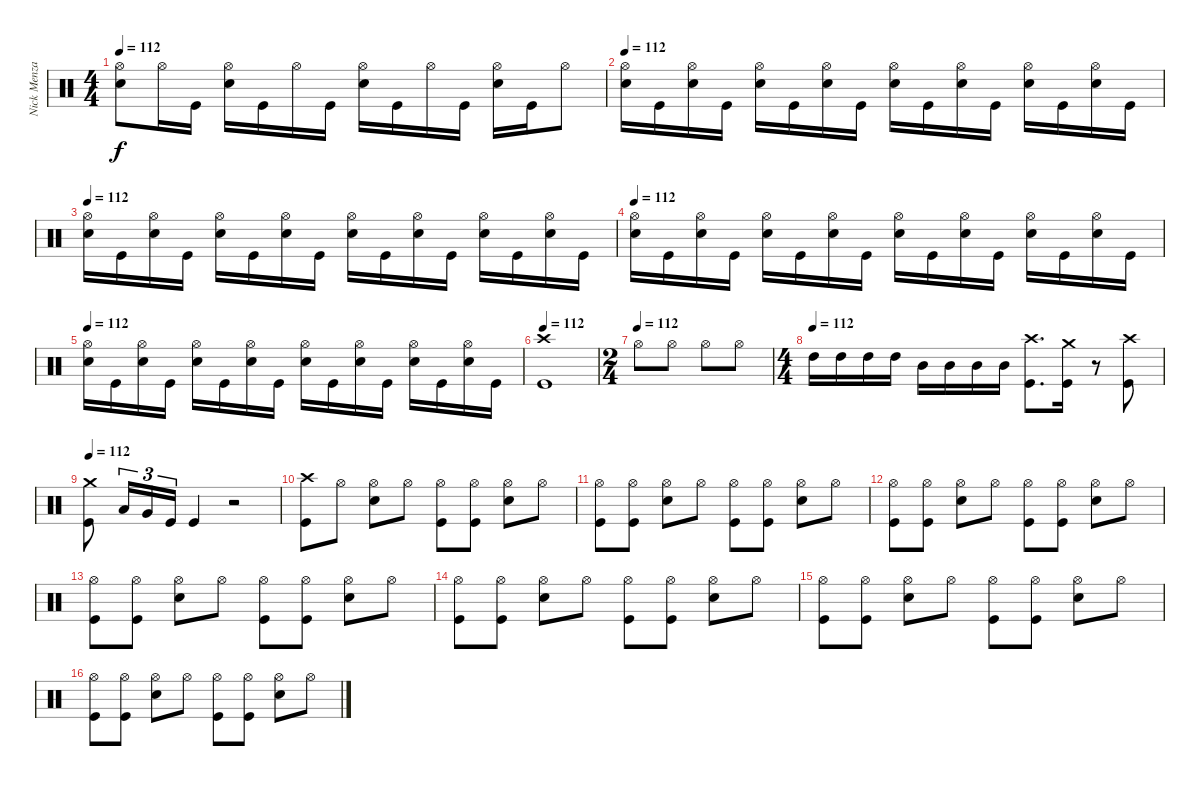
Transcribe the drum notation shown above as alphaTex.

\track ("Nick Menza" "Nick Menza") {instrument percussion}
\staff {score}
\articulation defaults
\ts (4 4)
\tempo 112
\clef neutral
\ks c
("Hi-Hat (open)" "Snare (hit) 2").8{dy f} "Hi-Hat (open)".16 "Kick (hit)".16 ("Hi-Hat (open)" "Snare (hit) 2").16 "Kick (hit)".16 "Hi-Hat (open)".16 "Kick (hit)".16 ("Hi-Hat (open)" "Snare (hit) 2").16 "Kick (hit)".16 "Hi-Hat (open)".16 "Kick (hit)".16 ("Hi-Hat (open)" "Snare (hit) 2").16 "Kick (hit)".16 "Hi-Hat (open)".8 |
\tempo 112
("Hi-Hat (open)" "Snare (hit) 2").16 "Kick (hit)".16 ("Hi-Hat (open)" "Snare (hit) 2").16 "Kick (hit)".16 ("Hi-Hat (open)" "Snare (hit) 2").16 "Kick (hit)".16 ("Hi-Hat (open)" "Snare (hit) 2").16 "Kick (hit)".16 ("Hi-Hat (open)" "Snare (hit) 2").16 "Kick (hit)".16 ("Hi-Hat (open)" "Snare (hit) 2").16 "Kick (hit)".16 ("Hi-Hat (open)" "Snare (hit) 2").16 "Kick (hit)".16 ("Hi-Hat (open)" "Snare (hit) 2").16 "Kick (hit)".16 |
\tempo 112
("Hi-Hat (open)" "Snare (hit) 2").16 "Kick (hit)".16 ("Hi-Hat (open)" "Snare (hit) 2").16 "Kick (hit)".16 ("Hi-Hat (open)" "Snare (hit) 2").16 "Kick (hit)".16 ("Hi-Hat (open)" "Snare (hit) 2").16 "Kick (hit)".16 ("Hi-Hat (open)" "Snare (hit) 2").16 "Kick (hit)".16 ("Hi-Hat (open)" "Snare (hit) 2").16 "Kick (hit)".16 ("Hi-Hat (open)" "Snare (hit) 2").16 "Kick (hit)".16 ("Hi-Hat (open)" "Snare (hit) 2").16 "Kick (hit)".16 |
\tempo 112
("Hi-Hat (open)" "Snare (hit) 2").16 "Kick (hit)".16 ("Hi-Hat (open)" "Snare (hit) 2").16 "Kick (hit)".16 ("Hi-Hat (open)" "Snare (hit) 2").16 "Kick (hit)".16 ("Hi-Hat (open)" "Snare (hit) 2").16 "Kick (hit)".16 ("Hi-Hat (open)" "Snare (hit) 2").16 "Kick (hit)".16 ("Hi-Hat (open)" "Snare (hit) 2").16 "Kick (hit)".16 ("Hi-Hat (open)" "Snare (hit) 2").16 "Kick (hit)".16 ("Hi-Hat (open)" "Snare (hit) 2").16 "Kick (hit)".16 |
\tempo 112
("Hi-Hat (open)" "Snare (hit) 2").16 "Kick (hit)".16 ("Hi-Hat (open)" "Snare (hit) 2").16 "Kick (hit)".16 ("Hi-Hat (open)" "Snare (hit) 2").16 "Kick (hit)".16 ("Hi-Hat (open)" "Snare (hit) 2").16 "Kick (hit)".16 ("Hi-Hat (open)" "Snare (hit) 2").16 "Kick (hit)".16 ("Hi-Hat (open)" "Snare (hit) 2").16 "Kick (hit)".16 ("Hi-Hat (open)" "Snare (hit) 2").16 "Kick (hit)".16 ("Hi-Hat (open)" "Snare (hit) 2").16 "Kick (hit)".16 |
\tempo 112
("Crash high (hit)" "Kick (hit)").1 |
\ts (2 4)
\tempo (112)
"Hi-Hat (open)".8 "Hi-Hat (open)".8 "Hi-Hat (open)".8 "Hi-Hat (open)".8 |
\ts (4 4)
\tempo (112)
"High Tom (hit)".16 "High Tom (hit)".16 "High Tom (hit)".16 "High Tom (hit)".16 "Mid Tom (hit)".16 "Mid Tom (hit)".16 "Mid Tom (hit)".16 "Mid Tom (hit)".16 ("Crash high (hit)" "Kick (hit)").8{d} ("Crash medium (hit)" "Kick (hit)").16 r.8 ("Crash high (hit)" "Kick (hit)").8 |
\tempo 112
("Crash medium (hit)" "Kick (hit)").8 "Low Floor Tom (hit)".16{tu (3 2)} "Very Low Tom (hit)".16{tu (3 2)} "Kick (hit)".16{tu (3 2)} "Kick (hit)".4 r.2 |
("Crash high (hit)" "Kick (hit)").8 "Hi-Hat (open)".8 ("Hi-Hat (open)" "Snare (hit) 2").8 "Hi-Hat (open)".8 ("Hi-Hat (open)" "Kick (hit)").8 ("Hi-Hat (open)" "Kick (hit)").8 ("Hi-Hat (open)" "Snare (hit) 2").8 "Hi-Hat (open)".8 |
("Hi-Hat (open)" "Kick (hit)").8 ("Hi-Hat (open)" "Kick (hit)").8 ("Hi-Hat (open)" "Snare (hit) 2").8 "Hi-Hat (open)".8 ("Hi-Hat (open)" "Kick (hit)").8 ("Hi-Hat (open)" "Kick (hit)").8 ("Hi-Hat (open)" "Snare (hit) 2").8 "Hi-Hat (open)".8 |
("Hi-Hat (open)" "Kick (hit)").8 ("Hi-Hat (open)" "Kick (hit)").8 ("Hi-Hat (open)" "Snare (hit) 2").8 "Hi-Hat (open)".8 ("Hi-Hat (open)" "Kick (hit)").8 ("Hi-Hat (open)" "Kick (hit)").8 ("Hi-Hat (open)" "Snare (hit) 2").8 "Hi-Hat (open)".8 |
("Hi-Hat (open)" "Kick (hit)").8 ("Hi-Hat (open)" "Kick (hit)").8 ("Hi-Hat (open)" "Snare (hit) 2").8 "Hi-Hat (open)".8 ("Hi-Hat (open)" "Kick (hit)").8 ("Hi-Hat (open)" "Kick (hit)").8 ("Hi-Hat (open)" "Snare (hit) 2").8 "Hi-Hat (open)".8 |
("Hi-Hat (open)" "Kick (hit)").8 ("Hi-Hat (open)" "Kick (hit)").8 ("Hi-Hat (open)" "Snare (hit) 2").8 "Hi-Hat (open)".8 ("Hi-Hat (open)" "Kick (hit)").8 ("Hi-Hat (open)" "Kick (hit)").8 ("Hi-Hat (open)" "Snare (hit) 2").8 "Hi-Hat (open)".8 |
("Hi-Hat (open)" "Kick (hit)").8 ("Hi-Hat (open)" "Kick (hit)").8 ("Hi-Hat (open)" "Snare (hit) 2").8 "Hi-Hat (open)".8 ("Hi-Hat (open)" "Kick (hit)").8 ("Hi-Hat (open)" "Kick (hit)").8 ("Hi-Hat (open)" "Snare (hit) 2").8 "Hi-Hat (open)".8 |
("Hi-Hat (open)" "Kick (hit)").8 ("Hi-Hat (open)" "Kick (hit)").8 ("Hi-Hat (open)" "Snare (hit) 2").8 "Hi-Hat (open)".8 ("Hi-Hat (open)" "Kick (hit)").8 ("Hi-Hat (open)" "Kick (hit)").8 ("Hi-Hat (open)" "Snare (hit) 2").8 "Hi-Hat (open)".8
